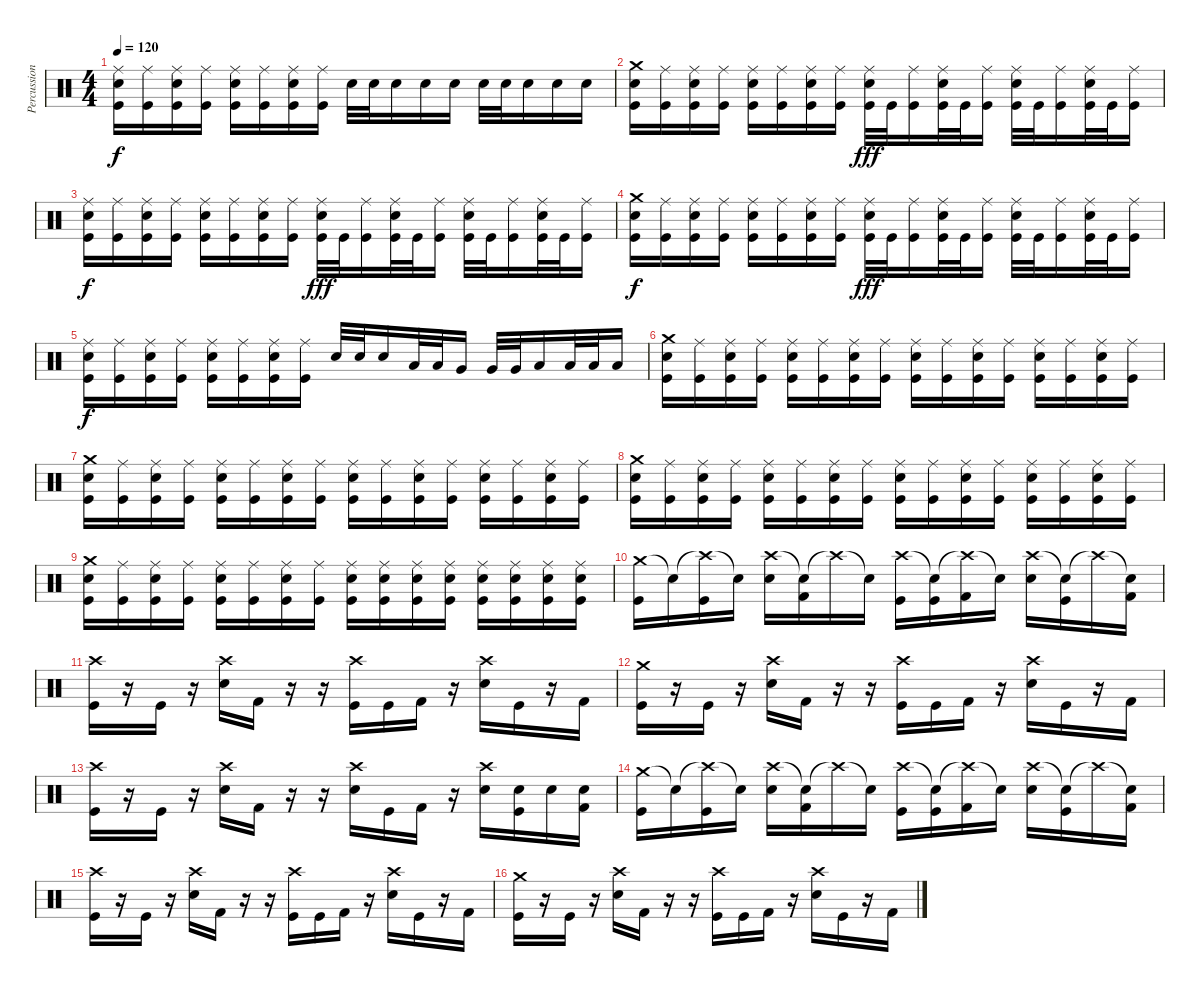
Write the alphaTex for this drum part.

\track ("Percussions" "Percussion") {instrument percussion}
\staff {score}
\articulation defaults
\ts (4 4)
\tempo 120
\clef neutral
\ks c
("Ride (middle)" "Electric Snare (hit)" "Kick (hit)").16{dy f} ("Ride (middle)" "Kick (hit)").16 ("Ride (middle)" "Electric Snare (hit)" "Kick (hit)").16 ("Ride (middle)" "Kick (hit)").16 ("Ride (middle)" "Electric Snare (hit)" "Kick (hit)").16 ("Ride (middle)" "Kick (hit)").16 ("Ride (middle)" "Electric Snare (hit)" "Kick (hit)").16 ("Ride (middle)" "Kick (hit)").16 "Electric Snare (hit)".32 "Electric Snare (hit)".32 "Electric Snare (hit)".16 "Electric Snare (hit)".16 "Electric Snare (hit)".16 "Electric Snare (hit)".32 "Electric Snare (hit)".32 "Electric Snare (hit)".16 "Electric Snare (hit)".16 "Electric Snare (hit)".16 |
("Crash medium (hit)" "Electric Snare (hit)" "Kick (hit)").16 ("Ride (middle)" "Kick (hit)").16 ("Ride (middle)" "Electric Snare (hit)" "Kick (hit)").16 ("Ride (middle)" "Kick (hit)").16 ("Ride (middle)" "Electric Snare (hit)" "Kick (hit)").16 ("Ride (middle)" "Kick (hit)").16 ("Ride (middle)" "Electric Snare (hit)" "Kick (hit)").16 ("Ride (middle)" "Kick (hit)").16 ("Ride (middle)" "Electric Snare (hit)" "Kick (hit)").32{dy fff} "Kick (hit)".32 ("Ride (middle)" "Kick (hit)").16 ("Ride (middle)" "Electric Snare (hit)" "Kick (hit)").32 "Kick (hit)".32 ("Ride (middle)" "Kick (hit)").16 ("Ride (middle)" "Electric Snare (hit)" "Kick (hit)").32 "Kick (hit)".32 ("Ride (middle)" "Kick (hit)").16 ("Ride (middle)" "Electric Snare (hit)" "Kick (hit)").32 "Kick (hit)".32 ("Ride (middle)" "Kick (hit)").16 |
("Ride (middle)" "Electric Snare (hit)" "Kick (hit)").16{dy f} ("Ride (middle)" "Kick (hit)").16 ("Ride (middle)" "Electric Snare (hit)" "Kick (hit)").16 ("Ride (middle)" "Kick (hit)").16 ("Ride (middle)" "Electric Snare (hit)" "Kick (hit)").16 ("Ride (middle)" "Kick (hit)").16 ("Ride (middle)" "Electric Snare (hit)" "Kick (hit)").16 ("Ride (middle)" "Kick (hit)").16 ("Ride (middle)" "Electric Snare (hit)" "Kick (hit)").32{dy fff} "Kick (hit)".32 ("Ride (middle)" "Kick (hit)").16 ("Ride (middle)" "Electric Snare (hit)" "Kick (hit)").32 "Kick (hit)".32 ("Ride (middle)" "Kick (hit)").16 ("Ride (middle)" "Electric Snare (hit)" "Kick (hit)").32 "Kick (hit)".32 ("Ride (middle)" "Kick (hit)").16 ("Ride (middle)" "Electric Snare (hit)" "Kick (hit)").32 "Kick (hit)".32 ("Ride (middle)" "Kick (hit)").16 |
("Crash medium (hit)" "Electric Snare (hit)" "Kick (hit)").16{dy f} ("Ride (middle)" "Kick (hit)").16 ("Ride (middle)" "Electric Snare (hit)" "Kick (hit)").16 ("Ride (middle)" "Kick (hit)").16 ("Ride (middle)" "Electric Snare (hit)" "Kick (hit)").16 ("Ride (middle)" "Kick (hit)").16 ("Ride (middle)" "Electric Snare (hit)" "Kick (hit)").16 ("Ride (middle)" "Kick (hit)").16 ("Ride (middle)" "Electric Snare (hit)" "Kick (hit)").32{dy fff} "Kick (hit)".32 ("Ride (middle)" "Kick (hit)").16 ("Ride (middle)" "Electric Snare (hit)" "Kick (hit)").32 "Kick (hit)".32 ("Ride (middle)" "Kick (hit)").16 ("Ride (middle)" "Electric Snare (hit)" "Kick (hit)").32 "Kick (hit)".32 ("Ride (middle)" "Kick (hit)").16 ("Ride (middle)" "Electric Snare (hit)" "Kick (hit)").32 "Kick (hit)".32 ("Ride (middle)" "Kick (hit)").16 |
("Ride (middle)" "Electric Snare (hit)" "Kick (hit)").16{dy f} ("Ride (middle)" "Kick (hit)").16 ("Ride (middle)" "Electric Snare (hit)" "Kick (hit)").16 ("Ride (middle)" "Kick (hit)").16 ("Ride (middle)" "Electric Snare (hit)" "Kick (hit)").16 ("Ride (middle)" "Kick (hit)").16 ("Ride (middle)" "Electric Snare (hit)" "Kick (hit)").16 ("Ride (middle)" "Kick (hit)").16 "Electric Snare (hit)".32 "Electric Snare (hit)".32 "Electric Snare (hit)".16 "Low Tom (hit)".32 "Low Tom (hit)".32 "Very Low Tom (hit)".16 "Very Low Tom (hit)".32 "Very Low Tom (hit)".32 "Low Floor Tom (hit)".16 "Low Floor Tom (hit)".32 "Low Floor Tom (hit)".32 "Low Floor Tom (hit)".16 |
("Crash medium (hit)" "Electric Snare (hit)" "Kick (hit)").16 ("Ride (middle)" "Kick (hit)").16 ("Ride (middle)" "Electric Snare (hit)" "Kick (hit)").16 ("Ride (middle)" "Kick (hit)").16 ("Ride (middle)" "Electric Snare (hit)" "Kick (hit)").16 ("Ride (middle)" "Kick (hit)").16 ("Ride (middle)" "Electric Snare (hit)" "Kick (hit)").16 ("Ride (middle)" "Kick (hit)").16 ("Ride (middle)" "Electric Snare (hit)" "Kick (hit)").16 ("Ride (middle)" "Kick (hit)").16 ("Ride (middle)" "Electric Snare (hit)" "Kick (hit)").16 ("Ride (middle)" "Kick (hit)").16 ("Ride (middle)" "Electric Snare (hit)" "Kick (hit)").16 ("Ride (middle)" "Kick (hit)").16 ("Ride (middle)" "Electric Snare (hit)" "Kick (hit)").16 ("Ride (middle)" "Kick (hit)").16 |
("Crash medium (hit)" "Electric Snare (hit)" "Kick (hit)").16 ("Ride (middle)" "Kick (hit)").16 ("Ride (middle)" "Electric Snare (hit)" "Kick (hit)").16 ("Ride (middle)" "Kick (hit)").16 ("Ride (middle)" "Electric Snare (hit)" "Kick (hit)").16 ("Ride (middle)" "Kick (hit)").16 ("Ride (middle)" "Electric Snare (hit)" "Kick (hit)").16 ("Ride (middle)" "Kick (hit)").16 ("Ride (middle)" "Electric Snare (hit)" "Kick (hit)").16 ("Ride (middle)" "Kick (hit)").16 ("Ride (middle)" "Electric Snare (hit)" "Kick (hit)").16 ("Ride (middle)" "Kick (hit)").16 ("Ride (middle)" "Electric Snare (hit)" "Kick (hit)").16 ("Ride (middle)" "Kick (hit)").16 ("Ride (middle)" "Electric Snare (hit)" "Kick (hit)").16 ("Ride (middle)" "Kick (hit)").16 |
("Crash medium (hit)" "Electric Snare (hit)" "Kick (hit)").16 ("Ride (middle)" "Kick (hit)").16 ("Ride (middle)" "Electric Snare (hit)" "Kick (hit)").16 ("Ride (middle)" "Kick (hit)").16 ("Ride (middle)" "Electric Snare (hit)" "Kick (hit)").16 ("Ride (middle)" "Kick (hit)").16 ("Ride (middle)" "Electric Snare (hit)" "Kick (hit)").16 ("Ride (middle)" "Kick (hit)").16 ("Ride (middle)" "Electric Snare (hit)" "Kick (hit)").16 ("Ride (middle)" "Kick (hit)").16 ("Ride (middle)" "Electric Snare (hit)" "Kick (hit)").16 ("Ride (middle)" "Kick (hit)").16 ("Ride (middle)" "Electric Snare (hit)" "Kick (hit)").16 ("Ride (middle)" "Kick (hit)").16 ("Ride (middle)" "Electric Snare (hit)" "Kick (hit)").16 ("Ride (middle)" "Kick (hit)").16 |
("Crash medium (hit)" "Electric Snare (hit)" "Kick (hit)").16 ("Ride (middle)" "Kick (hit)").16 ("Ride (middle)" "Electric Snare (hit)" "Kick (hit)").16 ("Ride (middle)" "Kick (hit)").16 ("Ride (middle)" "Electric Snare (hit)" "Kick (hit)").16 ("Ride (middle)" "Kick (hit)").16 ("Ride (middle)" "Electric Snare (hit)" "Kick (hit)").16 ("Ride (middle)" "Kick (hit)").16 ("Ride (middle)" "Electric Snare (hit)" "Kick (hit)").16 ("Ride (middle)" "Electric Snare (hit)" "Kick (hit)").16 ("Ride (middle)" "Electric Snare (hit)" "Kick (hit)").16 ("Ride (middle)" "Electric Snare (hit)" "Kick (hit)").16 ("Ride (middle)" "Electric Snare (hit)" "Kick (hit)").16 ("Ride (middle)" "Electric Snare (hit)" "Kick (hit)").16 ("Ride (middle)" "Electric Snare (hit)" "Kick (hit)").16 ("Ride (middle)" "Electric Snare (hit)" "Kick (hit)").16 |
("Crash medium (hit)" "Kick (hit)").16 "Snare (hit)"{t}.16 ("Crash high (hit)"{t} "Kick (hit)").16 "Snare (hit)"{t}.16 ("Crash high (hit)" "Electric Snare (hit)").16 ("Snare (hit)"{t} "Kick (hit) 2").16 "Crash high (hit)"{t}.16 "Snare (hit)"{t}.16 ("Crash high (hit)" "Kick (hit)").16 ("Snare (hit)"{t} "Kick (hit)").16 ("Crash high (hit)"{t} "Kick (hit) 2").16 "Snare (hit)"{t}.16 ("Crash high (hit)" "Electric Snare (hit)").16 ("Snare (hit)"{t} "Kick (hit)").16 "Crash high (hit)"{t}.16 ("Snare (hit)"{t} "Kick (hit) 2").16 |
("Crash high (hit)" "Kick (hit)").16 r.16 "Kick (hit)".16 r.16 ("Crash high (hit)" "Electric Snare (hit)").16 "Kick (hit) 2".16 r.16 r.16 ("Crash high (hit)" "Kick (hit)").16 "Kick (hit)".16 "Kick (hit) 2".16 r.16 ("Crash high (hit)" "Electric Snare (hit)").16 "Kick (hit)".16 r.16 "Kick (hit) 2".16 |
("Crash medium (hit)" "Kick (hit)").16 r.16 "Kick (hit)".16 r.16 ("Crash high (hit)" "Electric Snare (hit)").16 "Kick (hit) 2".16 r.16 r.16 ("Crash high (hit)" "Kick (hit)").16 "Kick (hit)".16 "Kick (hit) 2".16 r.16 ("Crash high (hit)" "Electric Snare (hit)").16 "Kick (hit)".16 r.16 "Kick (hit) 2".16 |
("Crash high (hit)" "Kick (hit)").16 r.16 "Kick (hit)".16 r.16 ("Crash high (hit)" "Electric Snare (hit)").16 "Kick (hit) 2".16 r.16 r.16 ("Crash high (hit)" "Electric Snare (hit)").16 "Kick (hit)".16 "Kick (hit) 2".16 r.16 ("Crash high (hit)" "Electric Snare (hit)").16 ("Electric Snare (hit)" "Kick (hit)").16 "Electric Snare (hit)".16 ("Electric Snare (hit)" "Kick (hit) 2").16 |
("Crash medium (hit)" "Kick (hit)").16 "Snare (hit)"{t}.16 ("Crash high (hit)"{t} "Kick (hit)").16 "Snare (hit)"{t}.16 ("Crash high (hit)" "Electric Snare (hit)").16 ("Snare (hit)"{t} "Kick (hit) 2").16 "Crash high (hit)"{t}.16 "Snare (hit)"{t}.16 ("Crash high (hit)" "Kick (hit)").16 ("Snare (hit)"{t} "Kick (hit)").16 ("Crash high (hit)"{t} "Kick (hit) 2").16 "Snare (hit)"{t}.16 ("Crash high (hit)" "Electric Snare (hit)").16 ("Snare (hit)"{t} "Kick (hit)").16 "Crash high (hit)"{t}.16 ("Snare (hit)"{t} "Kick (hit) 2").16 |
("Crash high (hit)" "Kick (hit)").16 r.16 "Kick (hit)".16 r.16 ("Crash high (hit)" "Electric Snare (hit)").16 "Kick (hit) 2".16 r.16 r.16 ("Crash high (hit)" "Kick (hit)").16 "Kick (hit)".16 "Kick (hit) 2".16 r.16 ("Crash high (hit)" "Electric Snare (hit)").16 "Kick (hit)".16 r.16 "Kick (hit) 2".16 |
("Crash medium (hit)" "Kick (hit)").16 r.16 "Kick (hit)".16 r.16 ("Crash high (hit)" "Electric Snare (hit)").16 "Kick (hit) 2".16 r.16 r.16 ("Crash high (hit)" "Kick (hit)").16 "Kick (hit)".16 "Kick (hit) 2".16 r.16 ("Crash high (hit)" "Electric Snare (hit)").16 "Kick (hit)".16 r.16 "Kick (hit) 2".16
